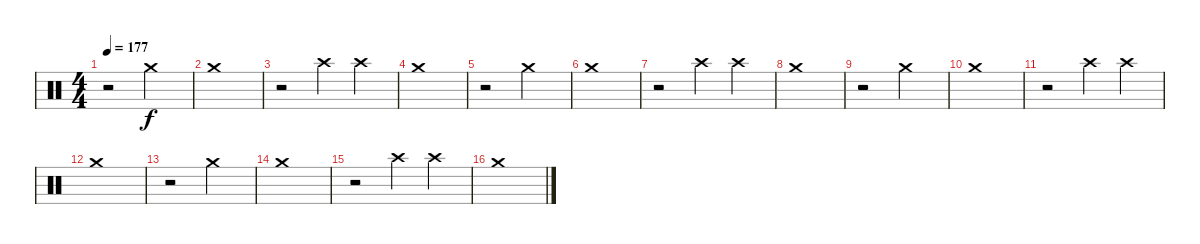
\track "" {instrument percussion}
\staff {score}
\articulation defaults
\ts (4 4)
\tempo 177
\clef neutral
\ks c
r.2{dy f} "Crash medium (hit)".2 |
"Crash medium (hit)".1 |
r.2 "Crash high (hit)".4 "Crash high (hit)".4 |
"Crash medium (hit)".1 |
r.2 "Crash medium (hit)".2 |
"Crash medium (hit)".1 |
r.2 "Crash high (hit)".4 "Crash high (hit)".4 |
"Crash medium (hit)".1 |
r.2 "Crash medium (hit)".2 |
"Crash medium (hit)".1 |
r.2 "Crash high (hit)".4 "Crash high (hit)".4 |
"Crash medium (hit)".1 |
r.2 "Crash medium (hit)".2 |
"Crash medium (hit)".1 |
r.2 "Crash high (hit)".4 "Crash high (hit)".4 |
"Crash medium (hit)".1
